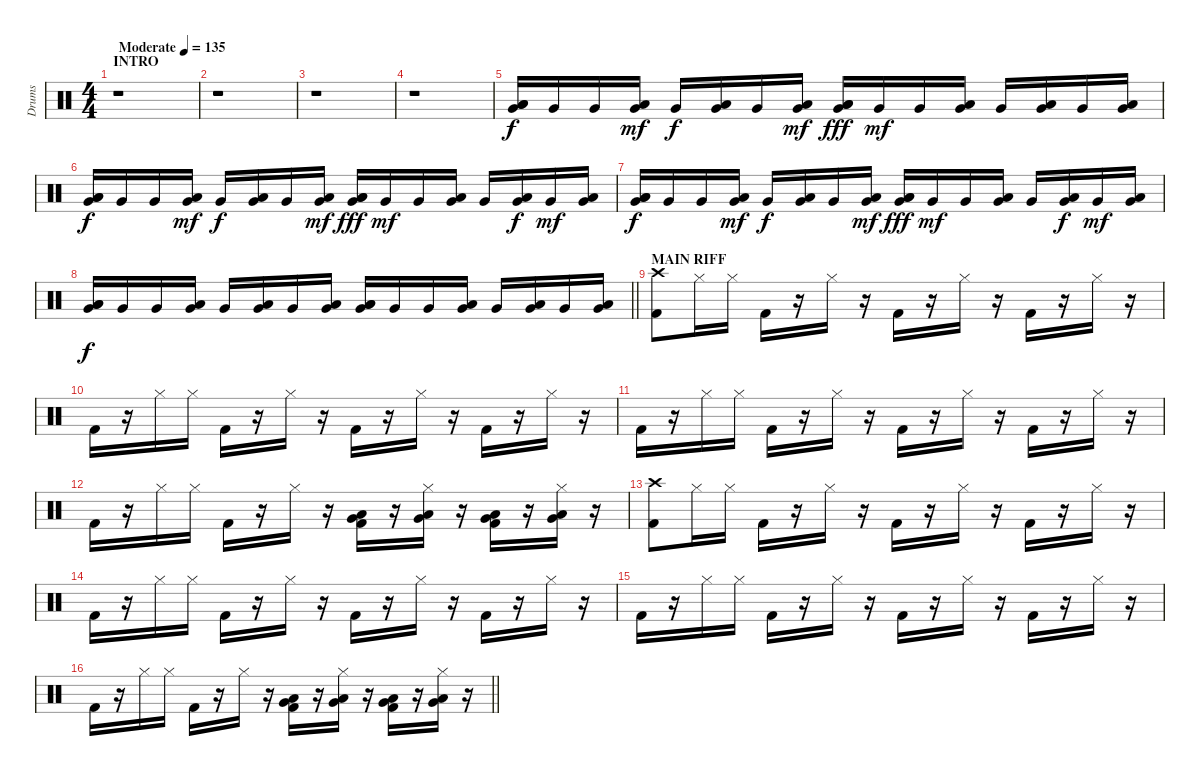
\track ("Drums" "Drums") {instrument percussion}
\staff {score}
\articulation defaults
\ts (4 4)
\section ("" "INTRO")
\tempo (135 "Moderate")
\clef neutral
\ks c
r.1{dy f} |
r.1 |
r.1 |
r.1 |
("Very Low Tom (hit)" "Low Tom (hit)" "Low Floor Tom (hit)").16{volume 0} "Very Low Tom (hit)".16{volume 14} "Very Low Tom (hit)".16 ("Very Low Tom (hit)" "Low Tom (hit)").16{dy mf} "Very Low Tom (hit)".16{dy f} ("Very Low Tom (hit)" "Low Tom (hit)").16 "Very Low Tom (hit)".16 ("Very Low Tom (hit)" "Low Tom (hit)").16{dy mf} ("Very Low Tom (hit)" "Low Tom (hit)" "Low Floor Tom (hit)").16{dy fff} "Very Low Tom (hit)".16{dy mf} "Very Low Tom (hit)".16 ("Very Low Tom (hit)" "Low Tom (hit)").16 "Very Low Tom (hit)".16 ("Very Low Tom (hit)" "Low Tom (hit)").16 "Very Low Tom (hit)".16 ("Very Low Tom (hit)" "Low Tom (hit)").16 |
("Very Low Tom (hit)" "Low Tom (hit)" "Low Floor Tom (hit)").16{dy f} "Very Low Tom (hit)".16 "Very Low Tom (hit)".16 ("Very Low Tom (hit)" "Low Tom (hit)").16{dy mf} "Very Low Tom (hit)".16{dy f} ("Very Low Tom (hit)" "Low Tom (hit)").16 "Very Low Tom (hit)".16 ("Very Low Tom (hit)" "Low Tom (hit)").16{dy mf} ("Very Low Tom (hit)" "Low Tom (hit)" "Low Floor Tom (hit)").16{dy fff} "Very Low Tom (hit)".16{dy mf} "Very Low Tom (hit)".16 ("Very Low Tom (hit)" "Low Tom (hit)").16 "Very Low Tom (hit)".16 ("Very Low Tom (hit)" "Low Tom (hit)").16{dy f} "Very Low Tom (hit)".16{dy mf} ("Very Low Tom (hit)" "Low Tom (hit)").16 |
("Very Low Tom (hit)" "Low Tom (hit)" "Low Floor Tom (hit)").16{dy f} "Very Low Tom (hit)".16 "Very Low Tom (hit)".16 ("Very Low Tom (hit)" "Low Tom (hit)").16{dy mf} "Very Low Tom (hit)".16{dy f} ("Very Low Tom (hit)" "Low Tom (hit)").16 "Very Low Tom (hit)".16 ("Very Low Tom (hit)" "Low Tom (hit)").16{dy mf} ("Very Low Tom (hit)" "Low Tom (hit)" "Low Floor Tom (hit)").16{dy fff} "Very Low Tom (hit)".16{dy mf} "Very Low Tom (hit)".16 ("Very Low Tom (hit)" "Low Tom (hit)").16 "Very Low Tom (hit)".16 ("Very Low Tom (hit)" "Low Tom (hit)").16{dy f} "Very Low Tom (hit)".16{dy mf} ("Very Low Tom (hit)" "Low Tom (hit)").16 |
\barLineRight lightlight
("Very Low Tom (hit)" "Low Tom (hit)" "Low Floor Tom (hit)").16{dy f} "Very Low Tom (hit)".16 "Very Low Tom (hit)".16 ("Very Low Tom (hit)" "Low Tom (hit)").16 "Very Low Tom (hit)".16 ("Very Low Tom (hit)" "Low Tom (hit)").16 "Very Low Tom (hit)".16 ("Very Low Tom (hit)" "Low Tom (hit)").16 ("Very Low Tom (hit)" "Low Tom (hit)" "Low Floor Tom (hit)").16 "Very Low Tom (hit)".16 "Very Low Tom (hit)".16 ("Very Low Tom (hit)" "Low Tom (hit)").16 "Very Low Tom (hit)".16 ("Very Low Tom (hit)" "Low Tom (hit)").16 "Very Low Tom (hit)".16 ("Very Low Tom (hit)" "Low Tom (hit)").16 |
\section ("" "MAIN RIFF")
("Kick (hit) 2" "Crash high (hit)").8 "Hi-Hat (closed)".16 "Hi-Hat (closed)".16 "Kick (hit) 2".16 r.16 "Hi-Hat (closed)".16 r.16 "Kick (hit) 2".16 r.16 "Hi-Hat (closed)".16 r.16 "Kick (hit) 2".16 r.16 "Hi-Hat (closed)".16 r.16 |
"Kick (hit) 2".16 r.16 "Hi-Hat (closed)".16 "Hi-Hat (closed)".16 "Kick (hit) 2".16 r.16 "Hi-Hat (closed)".16 r.16 "Kick (hit) 2".16 r.16 "Hi-Hat (closed)".16 r.16 "Kick (hit) 2".16 r.16 "Hi-Hat (closed)".16 r.16 |
"Kick (hit) 2".16 r.16 "Hi-Hat (closed)".16 "Hi-Hat (closed)".16 "Kick (hit) 2".16 r.16 "Hi-Hat (closed)".16 r.16 "Kick (hit) 2".16 r.16 "Hi-Hat (closed)".16 r.16 "Kick (hit) 2".16 r.16 "Hi-Hat (closed)".16 r.16 |
"Kick (hit) 2".16 r.16 "Hi-Hat (closed)".16 "Hi-Hat (closed)".16 "Kick (hit) 2".16 r.16 "Hi-Hat (closed)".16 r.16 ("Kick (hit) 2" "Very Low Tom (hit)" "Low Tom (hit)").16 r.16 ("Hi-Hat (closed)" "Low Tom (hit)" "Very Low Tom (hit)").16 r.16 ("Kick (hit) 2" "Very Low Tom (hit)" "Low Tom (hit)").16 r.16 ("Hi-Hat (closed)" "Low Tom (hit)" "Very Low Tom (hit)").16 r.16 |
("Kick (hit) 2" "Crash high (hit)").8 "Hi-Hat (closed)".16 "Hi-Hat (closed)".16 "Kick (hit) 2".16 r.16 "Hi-Hat (closed)".16 r.16 "Kick (hit) 2".16 r.16 "Hi-Hat (closed)".16 r.16 "Kick (hit) 2".16 r.16 "Hi-Hat (closed)".16 r.16 |
"Kick (hit) 2".16 r.16 "Hi-Hat (closed)".16 "Hi-Hat (closed)".16 "Kick (hit) 2".16 r.16 "Hi-Hat (closed)".16 r.16 "Kick (hit) 2".16 r.16 "Hi-Hat (closed)".16 r.16 "Kick (hit) 2".16 r.16 "Hi-Hat (closed)".16 r.16 |
"Kick (hit) 2".16 r.16 "Hi-Hat (closed)".16 "Hi-Hat (closed)".16 "Kick (hit) 2".16 r.16 "Hi-Hat (closed)".16 r.16 "Kick (hit) 2".16 r.16 "Hi-Hat (closed)".16 r.16 "Kick (hit) 2".16 r.16 "Hi-Hat (closed)".16 r.16 |
\barLineRight lightlight "Kick (hit) 2".16
r.16 "Hi-Hat (closed)".16 "Hi-Hat (closed)".16 "Kick (hit) 2".16 r.16 "Hi-Hat (closed)".16 r.16 ("Kick (hit) 2" "Very Low Tom (hit)" "Low Tom (hit)").16 r.16 ("Hi-Hat (closed)" "Low Tom (hit)" "Very Low Tom (hit)").16 r.16 ("Kick (hit) 2" "Very Low Tom (hit)" "Low Tom (hit)").16 r.16 ("Hi-Hat (closed)" "Low Tom (hit)" "Very Low Tom (hit)").16 r.16
